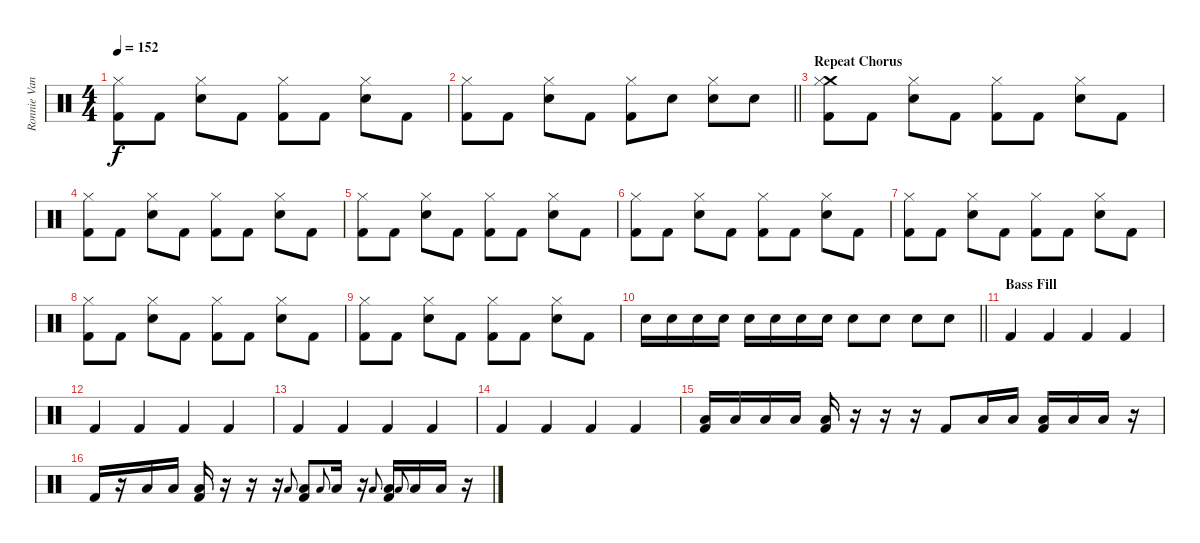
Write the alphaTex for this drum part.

\track ("Ronnie Vannucci Jr." "Ronnie Van") {instrument percussion}
\staff
\articulation defaults
\ts (4 4)
\tempo 152
\clef neutral
\ks c
("Hi-Hat (closed)" "Kick (hit) 2").8{dy f} "Kick (hit) 2".8 ("Hi-Hat (closed)" "Electric Snare (hit)").8 "Kick (hit) 2".8 ("Hi-Hat (closed)" "Kick (hit) 2").8 "Kick (hit) 2".8 ("Hi-Hat (closed)" "Electric Snare (hit)").8 "Kick (hit) 2".8 |
\barLineRight lightlight
("Hi-Hat (closed)" "Kick (hit) 2").8 "Kick (hit) 2".8 ("Hi-Hat (closed)" "Electric Snare (hit)").8 "Kick (hit) 2".8 ("Hi-Hat (closed)" "Kick (hit) 2").8 "Electric Snare (hit)".8 ("Hi-Hat (closed)" "Electric Snare (hit)").8 "Electric Snare (hit)".8 |
\section ("" "Repeat Chorus")
("Crash medium (hit)" "Hi-Hat (closed)" "Kick (hit) 2").8 "Kick (hit) 2".8 ("Hi-Hat (closed)" "Electric Snare (hit)").8 "Kick (hit) 2".8 ("Hi-Hat (closed)" "Kick (hit) 2").8 "Kick (hit) 2".8 ("Hi-Hat (closed)" "Electric Snare (hit)").8 "Kick (hit) 2".8 |
("Hi-Hat (closed)" "Kick (hit) 2").8 "Kick (hit) 2".8 ("Hi-Hat (closed)" "Electric Snare (hit)").8 "Kick (hit) 2".8 ("Hi-Hat (closed)" "Kick (hit) 2").8 "Kick (hit) 2".8 ("Hi-Hat (closed)" "Electric Snare (hit)").8 "Kick (hit) 2".8 |
("Hi-Hat (closed)" "Kick (hit) 2").8 "Kick (hit) 2".8 ("Hi-Hat (closed)" "Electric Snare (hit)").8 "Kick (hit) 2".8 ("Hi-Hat (closed)" "Kick (hit) 2").8 "Kick (hit) 2".8 ("Hi-Hat (closed)" "Electric Snare (hit)").8 "Kick (hit) 2".8 |
("Hi-Hat (closed)" "Kick (hit) 2").8 "Kick (hit) 2".8 ("Hi-Hat (closed)" "Electric Snare (hit)").8 "Kick (hit) 2".8 ("Hi-Hat (closed)" "Kick (hit) 2").8 "Kick (hit) 2".8 ("Hi-Hat (closed)" "Electric Snare (hit)").8 "Kick (hit) 2".8 |
("Hi-Hat (closed)" "Kick (hit) 2").8 "Kick (hit) 2".8 ("Hi-Hat (closed)" "Electric Snare (hit)").8 "Kick (hit) 2".8 ("Hi-Hat (closed)" "Kick (hit) 2").8 "Kick (hit) 2".8 ("Hi-Hat (closed)" "Electric Snare (hit)").8 "Kick (hit) 2".8 |
("Hi-Hat (closed)" "Kick (hit) 2").8 "Kick (hit) 2".8 ("Hi-Hat (closed)" "Electric Snare (hit)").8 "Kick (hit) 2".8 ("Hi-Hat (closed)" "Kick (hit) 2").8 "Kick (hit) 2".8 ("Hi-Hat (closed)" "Electric Snare (hit)").8 "Kick (hit) 2".8 |
("Hi-Hat (closed)" "Kick (hit) 2").8 "Kick (hit) 2".8 ("Hi-Hat (closed)" "Electric Snare (hit)").8 "Kick (hit) 2".8 ("Hi-Hat (closed)" "Kick (hit) 2").8 "Kick (hit) 2".8 ("Hi-Hat (closed)" "Electric Snare (hit)").8 "Kick (hit) 2".8 |
\barLineRight lightlight "Electric Snare (hit)".16 "Electric Snare (hit)".16 "Electric Snare (hit)".16 "Electric Snare (hit)".16 "Electric Snare (hit)".16 "Electric Snare (hit)".16 "Electric Snare (hit)".16 "Electric Snare (hit)".16 "Electric Snare (hit)".8 "Electric Snare (hit)".8 "Electric Snare (hit)".8 "Electric Snare (hit)".8
|
\section ("" "Bass Fill")
"Kick (hit) 2".4 "Kick (hit) 2".4 "Kick (hit) 2".4 "Kick (hit) 2".4 |
"Kick (hit) 2".4 "Kick (hit) 2".4 "Kick (hit) 2".4 "Kick (hit) 2".4 |
"Kick (hit) 2".4 "Kick (hit) 2".4 "Kick (hit) 2".4 "Kick (hit) 2".4 |
"Kick (hit) 2".4 "Kick (hit) 2".4 "Kick (hit) 2".4 "Kick (hit) 2".4 |
("Low Floor Tom (hit)" "Kick (hit) 2").16 "Low Floor Tom (hit)".16 "Low Floor Tom (hit)".16 "Low Floor Tom (hit)".16 ("Low Floor Tom (hit)" "Kick (hit) 2").16 r.16 r.16 r.16 "Kick (hit) 2".8 "Low Floor Tom (hit)".16 "Low Floor Tom (hit)".16 ("Low Floor Tom (hit)" "Kick (hit) 2").16 "Low Floor Tom (hit)".16 "Low Floor Tom (hit)".16 r.16 |
"Kick (hit) 2".16 r.16 "Low Floor Tom (hit)".16 "Low Floor Tom (hit)".16 ("Low Floor Tom (hit)" "Kick (hit) 2").16 r.16 r.16 r.16 "Low Floor Tom (hit)".8{gr onbeat} ("Low Floor Tom (hit)" "Kick (hit) 2").8 "Low Floor Tom (hit)".8{gr onbeat} "Low Floor Tom (hit)".16 r.16 "Low Floor Tom (hit)".8{gr onbeat} ("Low Floor Tom (hit)" "Kick (hit) 2").16 "Low Floor Tom (hit)".8{gr onbeat} "Low Floor Tom (hit)".16 "Low Floor Tom (hit)".16 r.16
